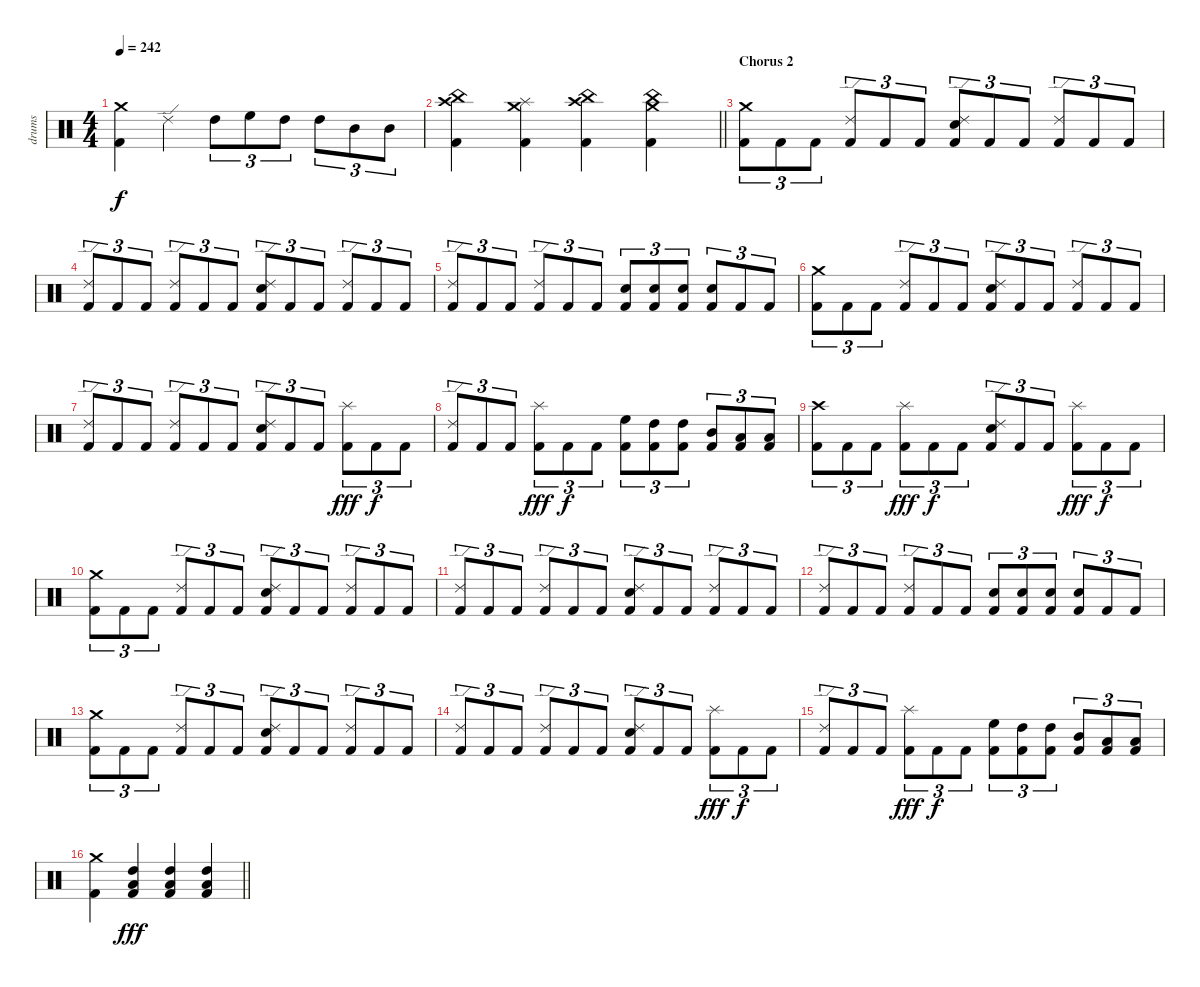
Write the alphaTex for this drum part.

\track ("drums" "drums") {instrument percussion}
\staff {score}
\articulation defaults
\ts (4 4)
\tempo 242
\clef neutral
\ks c
("Crash medium (hit)" "Kick (hit) 2").4{dy f} "Ride (edge) 2".4 "High Tom (hit)".8{tu (3 2)} "High Floor Tom (hit)".8{tu (3 2)} "High Tom (hit)".8{tu (3 2)} "High Tom (hit)".8{tu (3 2)} "Mid Tom (hit)".8{tu (3 2)} "Mid Tom (hit)".8{tu (3 2)} |
\barLineRight lightlight
("China (hit)" "Crash high (hit)" "Kick (hit) 2").4 ("Splash (hit)" "Crash medium (hit)" "Kick (hit) 2").4 ("China (hit)" "Crash high (hit)" "Kick (hit) 2").4 ("China (hit)" "Crash medium (hit)" "Kick (hit) 2").4 |
\section ("" "Chorus 2")
("Crash medium (hit)" "Kick (hit) 2").8{tu (3 2)} "Kick (hit) 2".8{tu (3 2)} "Kick (hit) 2".8{tu (3 2)} ("Ride (edge) 2" "Kick (hit) 2").8{tu (3 2)} "Kick (hit) 2".8{tu (3 2)} "Kick (hit) 2".8{tu (3 2)} ("Ride (edge) 2" "Electric Snare (hit)" "Kick (hit) 2").8{tu (3 2)} "Kick (hit) 2".8{tu (3 2)} "Kick (hit) 2".8{tu (3 2)} ("Ride (edge) 2" "Kick (hit) 2").8{tu (3 2)} "Kick (hit) 2".8{tu (3 2)} "Kick (hit) 2".8{tu (3 2)} |
("Ride (edge) 2" "Kick (hit) 2").8{tu (3 2)} "Kick (hit) 2".8{tu (3 2)} "Kick (hit) 2".8{tu (3 2)} ("Ride (edge) 2" "Kick (hit) 2").8{tu (3 2)} "Kick (hit) 2".8{tu (3 2)} "Kick (hit) 2".8{tu (3 2)} ("Ride (edge) 2" "Electric Snare (hit)" "Kick (hit) 2").8{tu (3 2)} "Kick (hit) 2".8{tu (3 2)} "Kick (hit) 2".8{tu (3 2)} ("Ride (edge) 2" "Kick (hit) 2").8{tu (3 2)} "Kick (hit) 2".8{tu (3 2)} "Kick (hit) 2".8{tu (3 2)} |
("Ride (edge) 2" "Kick (hit) 2").8{tu (3 2)} "Kick (hit) 2".8{tu (3 2)} "Kick (hit) 2".8{tu (3 2)} ("Ride (edge) 2" "Kick (hit) 2").8{tu (3 2)} "Kick (hit) 2".8{tu (3 2)} "Kick (hit) 2".8{tu (3 2)} ("Electric Snare (hit)" "Kick (hit) 2").8{tu (3 2)} ("Electric Snare (hit)" "Kick (hit) 2").8{tu (3 2)} ("Electric Snare (hit)" "Kick (hit) 2").8{tu (3 2)} ("Electric Snare (hit)" "Kick (hit) 2").8{tu (3 2)} "Kick (hit) 2".8{tu (3 2)} "Kick (hit) 2".8{tu (3 2)} |
("Crash medium (hit)" "Kick (hit) 2").8{tu (3 2)} "Kick (hit) 2".8{tu (3 2)} "Kick (hit) 2".8{tu (3 2)} ("Ride (edge) 2" "Kick (hit) 2").8{tu (3 2)} "Kick (hit) 2".8{tu (3 2)} "Kick (hit) 2".8{tu (3 2)} ("Ride (edge) 2" "Electric Snare (hit)" "Kick (hit) 2").8{tu (3 2)} "Kick (hit) 2".8{tu (3 2)} "Kick (hit) 2".8{tu (3 2)} ("Ride (edge) 2" "Kick (hit) 2").8{tu (3 2)} "Kick (hit) 2".8{tu (3 2)} "Kick (hit) 2".8{tu (3 2)} |
("Ride (edge) 2" "Kick (hit) 2").8{tu (3 2)} "Kick (hit) 2".8{tu (3 2)} "Kick (hit) 2".8{tu (3 2)} ("Ride (edge) 2" "Kick (hit) 2").8{tu (3 2)} "Kick (hit) 2".8{tu (3 2)} "Kick (hit) 2".8{tu (3 2)} ("Ride (edge) 2" "Electric Snare (hit)" "Kick (hit) 2").8{tu (3 2)} "Kick (hit) 2".8{tu (3 2)} "Kick (hit) 2".8{tu (3 2)} ("Splash (hit)" "Kick (hit) 2").8{tu (3 2) dy fff} "Kick (hit) 2".8{tu (3 2) dy f} "Kick (hit) 2".8{tu (3 2)} |
("Ride (edge) 2" "Kick (hit) 2").8{tu (3 2)} "Kick (hit) 2".8{tu (3 2)} "Kick (hit) 2".8{tu (3 2)} ("Splash (hit)" "Kick (hit) 2").8{tu (3 2) dy fff} "Kick (hit) 2".8{tu (3 2) dy f} "Kick (hit) 2".8{tu (3 2)} ("High Floor Tom (hit)" "Kick (hit) 2").8{tu (3 2)} ("High Tom (hit)" "Kick (hit) 2").8{tu (3 2)} ("High Tom (hit)" "Kick (hit) 2").8{tu (3 2)} ("Mid Tom (hit)" "Kick (hit) 2").8{tu (3 2)} ("Low Tom (hit)" "Kick (hit) 2").8{tu (3 2)} ("Low Tom (hit)" "Kick (hit) 2").8{tu (3 2)} |
("Crash high (hit)" "Kick (hit) 2").8{tu (3 2)} "Kick (hit) 2".8{tu (3 2)} "Kick (hit) 2".8{tu (3 2)} ("Splash (hit)" "Kick (hit) 2").8{tu (3 2) dy fff} "Kick (hit) 2".8{tu (3 2) dy f} "Kick (hit) 2".8{tu (3 2)} ("Ride (edge) 2" "Electric Snare (hit)" "Kick (hit) 2").8{tu (3 2)} "Kick (hit) 2".8{tu (3 2)} "Kick (hit) 2".8{tu (3 2)} ("Splash (hit)" "Kick (hit) 2").8{tu (3 2) dy fff} "Kick (hit) 2".8{tu (3 2) dy f} "Kick (hit) 2".8{tu (3 2)} |
("Crash medium (hit)" "Kick (hit) 2").8{tu (3 2)} "Kick (hit) 2".8{tu (3 2)} "Kick (hit) 2".8{tu (3 2)} ("Ride (edge) 2" "Kick (hit) 2").8{tu (3 2)} "Kick (hit) 2".8{tu (3 2)} "Kick (hit) 2".8{tu (3 2)} ("Ride (edge) 2" "Electric Snare (hit)" "Kick (hit) 2").8{tu (3 2)} "Kick (hit) 2".8{tu (3 2)} "Kick (hit) 2".8{tu (3 2)} ("Ride (edge) 2" "Kick (hit) 2").8{tu (3 2)} "Kick (hit) 2".8{tu (3 2)} "Kick (hit) 2".8{tu (3 2)} |
("Ride (edge) 2" "Kick (hit) 2").8{tu (3 2)} "Kick (hit) 2".8{tu (3 2)} "Kick (hit) 2".8{tu (3 2)} ("Ride (edge) 2" "Kick (hit) 2").8{tu (3 2)} "Kick (hit) 2".8{tu (3 2)} "Kick (hit) 2".8{tu (3 2)} ("Ride (edge) 2" "Electric Snare (hit)" "Kick (hit) 2").8{tu (3 2)} "Kick (hit) 2".8{tu (3 2)} "Kick (hit) 2".8{tu (3 2)} ("Ride (edge) 2" "Kick (hit) 2").8{tu (3 2)} "Kick (hit) 2".8{tu (3 2)} "Kick (hit) 2".8{tu (3 2)} |
("Ride (edge) 2" "Kick (hit) 2").8{tu (3 2)} "Kick (hit) 2".8{tu (3 2)} "Kick (hit) 2".8{tu (3 2)} ("Ride (edge) 2" "Kick (hit) 2").8{tu (3 2)} "Kick (hit) 2".8{tu (3 2)} "Kick (hit) 2".8{tu (3 2)} ("Electric Snare (hit)" "Kick (hit) 2").8{tu (3 2)} ("Electric Snare (hit)" "Kick (hit) 2").8{tu (3 2)} ("Electric Snare (hit)" "Kick (hit) 2").8{tu (3 2)} ("Electric Snare (hit)" "Kick (hit) 2").8{tu (3 2)} "Kick (hit) 2".8{tu (3 2)} "Kick (hit) 2".8{tu (3 2)} |
("Crash medium (hit)" "Kick (hit) 2").8{tu (3 2)} "Kick (hit) 2".8{tu (3 2)} "Kick (hit) 2".8{tu (3 2)} ("Ride (edge) 2" "Kick (hit) 2").8{tu (3 2)} "Kick (hit) 2".8{tu (3 2)} "Kick (hit) 2".8{tu (3 2)} ("Ride (edge) 2" "Electric Snare (hit)" "Kick (hit) 2").8{tu (3 2)} "Kick (hit) 2".8{tu (3 2)} "Kick (hit) 2".8{tu (3 2)} ("Ride (edge) 2" "Kick (hit) 2").8{tu (3 2)} "Kick (hit) 2".8{tu (3 2)} "Kick (hit) 2".8{tu (3 2)} |
("Ride (edge) 2" "Kick (hit) 2").8{tu (3 2)} "Kick (hit) 2".8{tu (3 2)} "Kick (hit) 2".8{tu (3 2)} ("Ride (edge) 2" "Kick (hit) 2").8{tu (3 2)} "Kick (hit) 2".8{tu (3 2)} "Kick (hit) 2".8{tu (3 2)} ("Ride (edge) 2" "Electric Snare (hit)" "Kick (hit) 2").8{tu (3 2)} "Kick (hit) 2".8{tu (3 2)} "Kick (hit) 2".8{tu (3 2)} ("Splash (hit)" "Kick (hit) 2").8{tu (3 2) dy fff} "Kick (hit) 2".8{tu (3 2) dy f} "Kick (hit) 2".8{tu (3 2)} |
("Ride (edge) 2" "Kick (hit) 2").8{tu (3 2)} "Kick (hit) 2".8{tu (3 2)} "Kick (hit) 2".8{tu (3 2)} ("Splash (hit)" "Kick (hit) 2").8{tu (3 2) dy fff} "Kick (hit) 2".8{tu (3 2) dy f} "Kick (hit) 2".8{tu (3 2)} ("High Floor Tom (hit)" "Kick (hit) 2").8{tu (3 2)} ("High Tom (hit)" "Kick (hit) 2").8{tu (3 2)} ("High Tom (hit)" "Kick (hit) 2").8{tu (3 2)} ("Mid Tom (hit)" "Kick (hit) 2").8{tu (3 2)} ("Low Tom (hit)" "Kick (hit) 2").8{tu (3 2)} ("Low Tom (hit)" "Kick (hit) 2").8{tu (3 2)} |
\barLineRight lightlight
("Crash medium (hit)" "Kick (hit) 2").4 ("High Tom (hit)" "Low Tom (hit)" "Kick (hit) 2").4{dy fff} ("High Tom (hit)" "Low Tom (hit)" "Kick (hit) 2").4 ("High Tom (hit)" "Low Tom (hit)" "Kick (hit) 2").4
